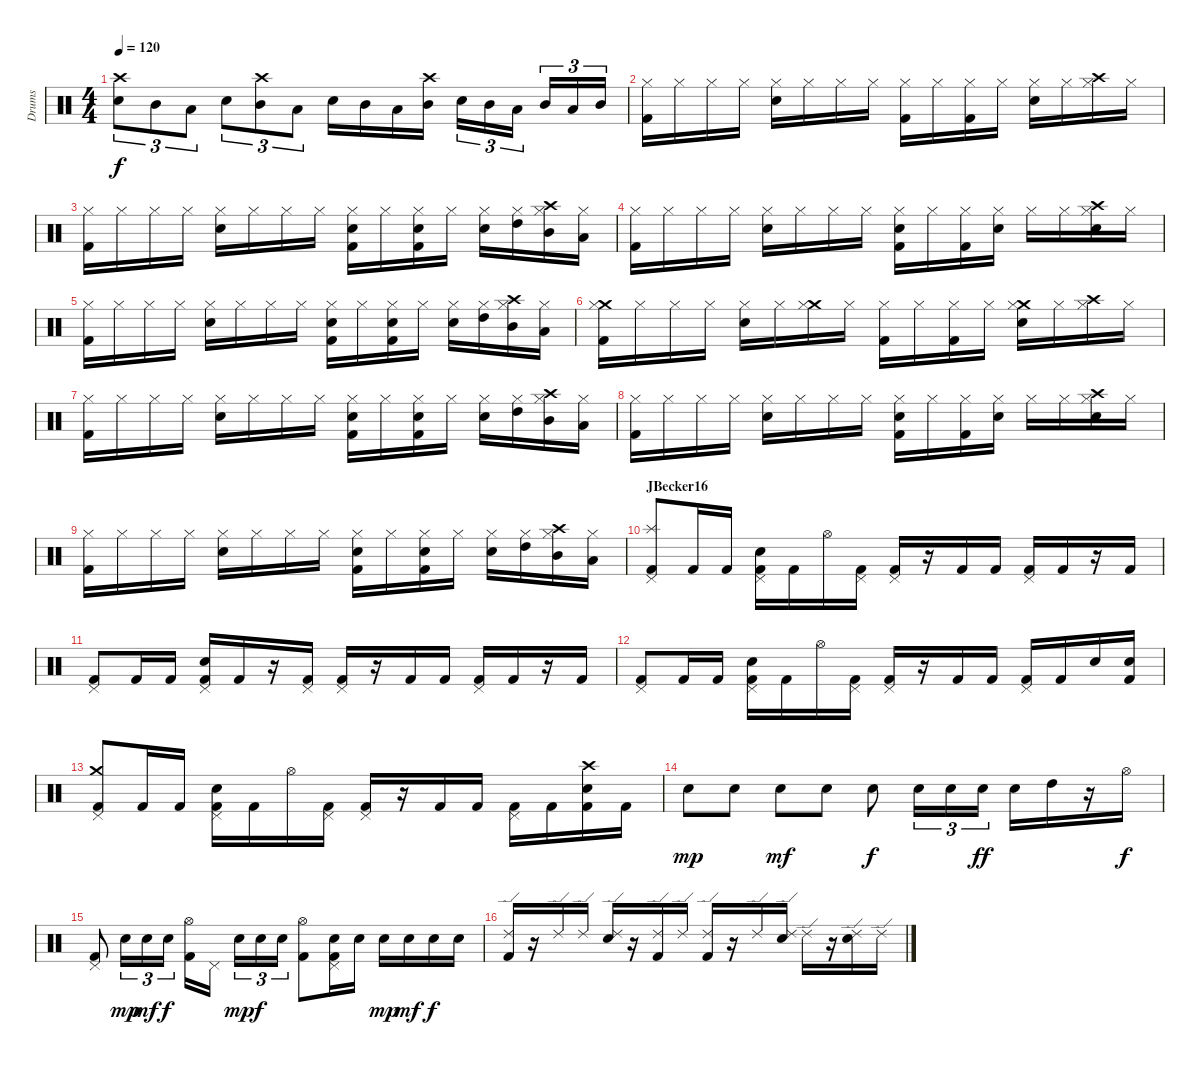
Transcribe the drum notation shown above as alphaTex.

\track ("Drums" "Drums") {instrument percussion}
\staff {score}
\articulation defaults
\ts (4 4)
\tempo 120
\clef neutral
\ks c
("Crash high (hit)" "Electric Snare (hit)").8{tu (3 2) dy f} "Mid Tom (hit)".8{tu (3 2)} "Low Tom (hit)".8{tu (3 2)} "Electric Snare (hit)".8{tu (3 2)} ("Crash high (hit)" "Mid Tom (hit)").8{tu (3 2)} "Low Tom (hit)".8{tu (3 2)} "Electric Snare (hit)".16 "Mid Tom (hit)".16 "Low Tom (hit)".16 ("Crash high (hit)" "Mid Tom (hit)").16 "Electric Snare (hit)".16{tu (3 2)} "Mid Tom (hit)".16{tu (3 2)} "Low Tom (hit)".16{tu (3 2)} "Mid Tom (hit)".16{tu (3 2)} "Low Tom (hit)".16{tu (3 2)} "Mid Tom (hit)".16{tu (3 2)} |
("Hi-Hat (closed)" "Kick (hit) 2").16 "Hi-Hat (closed)".16 "Hi-Hat (closed)".16 "Hi-Hat (closed)".16 ("Hi-Hat (closed)" "Electric Snare (hit)").16 "Hi-Hat (closed)".16 "Hi-Hat (closed)".16 "Hi-Hat (closed)".16 ("Hi-Hat (closed)" "Kick (hit) 2").16 "Hi-Hat (closed)".16 ("Hi-Hat (closed)" "Kick (hit) 2").16 "Hi-Hat (closed)".16 ("Hi-Hat (closed)" "Electric Snare (hit)").16 "Hi-Hat (closed)".16 ("Crash high (hit)" "Hi-Hat (closed)").16 "Hi-Hat (closed)".16 |
("Hi-Hat (closed)" "Kick (hit) 2").16 "Hi-Hat (closed)".16 "Hi-Hat (closed)".16 "Hi-Hat (closed)".16 ("Hi-Hat (closed)" "Electric Snare (hit)").16 "Hi-Hat (closed)".16 "Hi-Hat (closed)".16 "Hi-Hat (closed)".16 ("Hi-Hat (closed)" "Electric Snare (hit)" "Kick (hit) 2").16 "Hi-Hat (closed)".16 ("Hi-Hat (closed)" "Electric Snare (hit)" "Kick (hit) 2").16 "Hi-Hat (closed)".16 ("Hi-Hat (closed)" "Electric Snare (hit)").16 ("Hi-Hat (closed)" "High Tom (hit)").16 ("Crash high (hit)" "Hi-Hat (closed)" "Mid Tom (hit)").16 ("Hi-Hat (closed)" "Low Tom (hit)").16 |
("Hi-Hat (closed)" "Kick (hit) 2").16 "Hi-Hat (closed)".16 "Hi-Hat (closed)".16 "Hi-Hat (closed)".16 ("Hi-Hat (closed)" "Electric Snare (hit)").16 "Hi-Hat (closed)".16 "Hi-Hat (closed)".16 "Hi-Hat (closed)".16 ("Hi-Hat (closed)" "Electric Snare (hit)" "Kick (hit) 2").16 "Hi-Hat (closed)".16 ("Hi-Hat (closed)" "Kick (hit) 2").16 ("Hi-Hat (closed)" "Electric Snare (hit)").16 "Hi-Hat (closed)".16 "Hi-Hat (closed)".16 ("Crash high (hit)" "Hi-Hat (closed)" "Electric Snare (hit)").16 "Hi-Hat (closed)".16 |
("Hi-Hat (closed)" "Kick (hit) 2").16 "Hi-Hat (closed)".16 "Hi-Hat (closed)".16 "Hi-Hat (closed)".16 ("Hi-Hat (closed)" "Electric Snare (hit)").16 "Hi-Hat (closed)".16 "Hi-Hat (closed)".16 "Hi-Hat (closed)".16 ("Hi-Hat (closed)" "Electric Snare (hit)" "Kick (hit) 2").16 "Hi-Hat (closed)".16 ("Hi-Hat (closed)" "Electric Snare (hit)" "Kick (hit) 2").16 "Hi-Hat (closed)".16 ("Hi-Hat (closed)" "Electric Snare (hit)").16 ("Hi-Hat (closed)" "High Tom (hit)").16 ("Crash high (hit)" "Hi-Hat (closed)" "Mid Tom (hit)").16 ("Hi-Hat (closed)" "Low Tom (hit)").16 |
("Crash medium (hit)" "Hi-Hat (closed)" "Kick (hit) 2").16 "Hi-Hat (closed)".16 "Hi-Hat (closed)".16 "Hi-Hat (closed)".16 ("Hi-Hat (closed)" "Electric Snare (hit)").16 "Hi-Hat (closed)".16 ("Crash medium (hit)" "Hi-Hat (closed)").16 "Hi-Hat (closed)".16 ("Hi-Hat (closed)" "Kick (hit) 2").16 "Hi-Hat (closed)".16 ("Hi-Hat (closed)" "Kick (hit) 2").16 "Hi-Hat (closed)".16 ("Crash medium (hit)" "Hi-Hat (closed)" "Electric Snare (hit)").16 "Hi-Hat (closed)".16 ("Crash high (hit)" "Hi-Hat (closed)").16 "Hi-Hat (closed)".16 |
("Hi-Hat (closed)" "Kick (hit) 2").16 "Hi-Hat (closed)".16 "Hi-Hat (closed)".16 "Hi-Hat (closed)".16 ("Hi-Hat (closed)" "Electric Snare (hit)").16 "Hi-Hat (closed)".16 "Hi-Hat (closed)".16 "Hi-Hat (closed)".16 ("Hi-Hat (closed)" "Electric Snare (hit)" "Kick (hit) 2").16 "Hi-Hat (closed)".16 ("Hi-Hat (closed)" "Electric Snare (hit)" "Kick (hit) 2").16 "Hi-Hat (closed)".16 ("Hi-Hat (closed)" "Electric Snare (hit)").16 ("Hi-Hat (closed)" "High Tom (hit)").16 ("Crash high (hit)" "Hi-Hat (closed)" "Mid Tom (hit)").16 ("Hi-Hat (closed)" "Low Tom (hit)").16 |
("Hi-Hat (closed)" "Kick (hit) 2").16 "Hi-Hat (closed)".16 "Hi-Hat (closed)".16 "Hi-Hat (closed)".16 ("Hi-Hat (closed)" "Electric Snare (hit)").16 "Hi-Hat (closed)".16 "Hi-Hat (closed)".16 "Hi-Hat (closed)".16 ("Hi-Hat (closed)" "Electric Snare (hit)" "Kick (hit) 2").16 "Hi-Hat (closed)".16 ("Hi-Hat (closed)" "Kick (hit) 2").16 ("Hi-Hat (closed)" "Electric Snare (hit)").16 "Hi-Hat (closed)".16 "Hi-Hat (closed)".16 ("Crash high (hit)" "Hi-Hat (closed)" "Electric Snare (hit)").16 "Hi-Hat (closed)".16 |
("Hi-Hat (closed)" "Kick (hit) 2").16 "Hi-Hat (closed)".16 "Hi-Hat (closed)".16 "Hi-Hat (closed)".16 ("Hi-Hat (closed)" "Electric Snare (hit)").16 "Hi-Hat (closed)".16 "Hi-Hat (closed)".16 "Hi-Hat (closed)".16 ("Hi-Hat (closed)" "Electric Snare (hit)" "Kick (hit) 2").16 "Hi-Hat (closed)".16 ("Hi-Hat (closed)" "Electric Snare (hit)" "Kick (hit) 2").16 "Hi-Hat (closed)".16 ("Hi-Hat (closed)" "Electric Snare (hit)").16 ("Hi-Hat (closed)" "High Tom (hit)").16 ("Crash high (hit)" "Hi-Hat (closed)" "Mid Tom (hit)").16 ("Hi-Hat (closed)" "Low Tom (hit)").16 |
\section ("" "JBecker16")
("Splash (hit)" "Pedal Hi-Hat (hit)" "Kick (hit) 2").8 "Kick (hit) 2".16 "Kick (hit) 2".16 ("Pedal Hi-Hat (hit)" "Electric Snare (hit)" "Kick (hit) 2").16 "Kick (hit) 2".16 "Hi-Hat (open)".16 ("Pedal Hi-Hat (hit)" "Kick (hit) 2").16 ("Pedal Hi-Hat (hit)" "Kick (hit) 2").16 r.16 "Kick (hit) 2".16 "Kick (hit) 2".16 ("Pedal Hi-Hat (hit)" "Kick (hit) 2").16 "Kick (hit) 2".16 r.16 "Kick (hit) 2".16 |
("Pedal Hi-Hat (hit)" "Kick (hit) 2").8 "Kick (hit) 2".16 "Kick (hit) 2".16 ("Pedal Hi-Hat (hit)" "Electric Snare (hit)" "Kick (hit) 2").16 "Kick (hit) 2".16 r.16 ("Pedal Hi-Hat (hit)" "Kick (hit) 2").16 ("Pedal Hi-Hat (hit)" "Kick (hit) 2").16 r.16 "Kick (hit) 2".16 "Kick (hit) 2".16 ("Pedal Hi-Hat (hit)" "Kick (hit) 2").16 "Kick (hit) 2".16 r.16 "Kick (hit) 2".16 |
("Pedal Hi-Hat (hit)" "Kick (hit) 2").8 "Kick (hit) 2".16 "Kick (hit) 2".16 ("Pedal Hi-Hat (hit)" "Electric Snare (hit)" "Kick (hit) 2").16 "Kick (hit) 2".16 "Hi-Hat (open)".16 ("Pedal Hi-Hat (hit)" "Kick (hit) 2").16 ("Pedal Hi-Hat (hit)" "Kick (hit) 2").16 r.16 "Kick (hit) 2".16 "Kick (hit) 2".16 ("Pedal Hi-Hat (hit)" "Kick (hit) 2").16 "Kick (hit) 2".16 "Electric Snare (hit)".16 ("Electric Snare (hit)" "Kick (hit) 2").16 |
("Crash medium (hit)" "Pedal Hi-Hat (hit)" "Kick (hit) 2").8 "Kick (hit) 2".16 "Kick (hit) 2".16 ("Pedal Hi-Hat (hit)" "Electric Snare (hit)" "Kick (hit) 2").16 "Kick (hit) 2".16 "Hi-Hat (open)".16 ("Pedal Hi-Hat (hit)" "Kick (hit) 2").16 ("Pedal Hi-Hat (hit)" "Kick (hit) 2").16 r.16 "Kick (hit) 2".16 "Kick (hit) 2".16 ("Pedal Hi-Hat (hit)" "Kick (hit) 2").16 "Kick (hit) 2".16 ("Crash high (hit)" "Electric Snare (hit)" "Kick (hit) 2").16 "Kick (hit) 2".16 |
"Electric Snare (hit)".8{dy mp} "Electric Snare (hit)".8 "Electric Snare (hit)".8{dy mf} "Electric Snare (hit)".8 "Electric Snare (hit)".8{dy f} "Electric Snare (hit)".16{tu (3 2)} "Electric Snare (hit)".16{tu (3 2)} "Electric Snare (hit)".16{tu (3 2) dy ff} "Electric Snare (hit)".16 "High Tom (hit)".16 r.16 "Hi-Hat (open)".16{dy f} |
("Pedal Hi-Hat (hit)" "Kick (hit) 2").8 "Electric Snare (hit)".16{tu (3 2) dy mp} "Electric Snare (hit)".16{tu (3 2) dy mf} "Electric Snare (hit)".16{tu (3 2) dy f} ("Hi-Hat (open)" "Kick (hit) 2").16 "Pedal Hi-Hat (hit)".16 "Electric Snare (hit)".16{tu (3 2) dy mp} "Electric Snare (hit)".16{tu (3 2) dy f} "Electric Snare (hit)".16{tu (3 2)} ("Hi-Hat (open)" "Kick (hit) 2").8 ("Pedal Hi-Hat (hit)" "Electric Snare (hit)" "Kick (hit) 2").16 "Electric Snare (hit)".16 "Electric Snare (hit)".16{dy mp} "Electric Snare (hit)".16{dy mf} "Electric Snare (hit)".16{dy f} "Electric Snare (hit)".16 |
("Ride (edge) 2" "Kick (hit) 2").16 r.16 "Ride (edge) 2".16 "Ride (edge) 2".16 ("Ride (edge) 2" "Electric Snare (hit)").16 r.16 ("Ride (edge) 2" "Kick (hit) 2").16 "Ride (edge) 2".16 ("Ride (edge) 2" "Kick (hit) 2").16 r.16 "Ride (edge) 2".16 ("Ride (edge) 2" "Electric Snare (hit)").16 "Ride (edge) 2".16 r.16 ("Ride (edge) 2" "Electric Snare (hit)").16 "Ride (edge) 2".16
